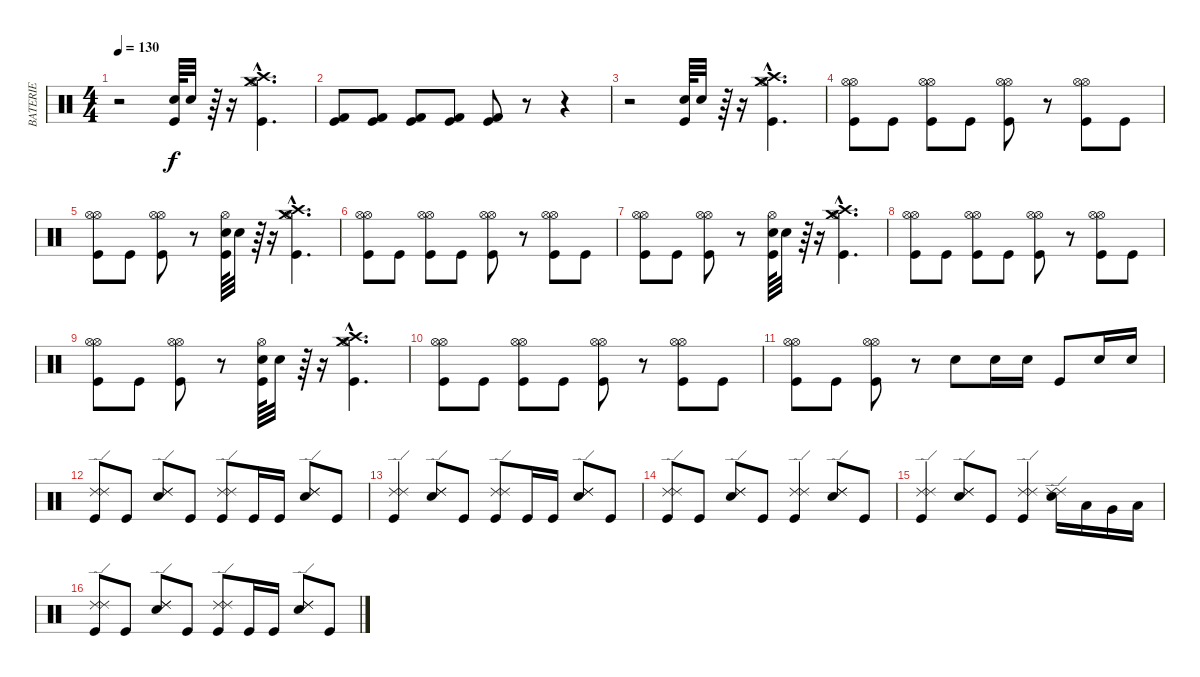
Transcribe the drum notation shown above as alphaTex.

\track ("BATERIE" "BATERIE") {instrument percussion}
\staff {score}
\articulation defaults
\ts (4 4)
\tempo 130
\clef neutral
\ks c
r.2{dy f} ("Snare (hit) 2" "Kick (hit)").64 "Snare (hit) 2".32 r.64 r.16 ("Crash high (hit)"{hac} "Hi-Hat (open)"{hac} "Crash medium (hit)"{hac} "Kick (hit)"{hac}).4{d} |
("Kick (hit) 2" "Kick (hit)").8 ("Kick (hit) 2" "Kick (hit)").8 ("Kick (hit) 2" "Kick (hit)").8 ("Kick (hit) 2" "Kick (hit)").8 ("Kick (hit) 2" "Kick (hit)").8 r.8 r.4 |
r.2 ("Snare (hit) 2" "Kick (hit)").64 "Snare (hit) 2".32 r.64 r.16 ("Crash high (hit)"{hac} "Hi-Hat (open)"{hac} "Crash medium (hit)"{hac} "Kick (hit)"{hac}).4{d} |
("Hi-Hat (open)" "Hi-Hat (open)" "Kick (hit)").8 "Kick (hit)".8 ("Hi-Hat (open)" "Hi-Hat (open)" "Kick (hit)").8 "Kick (hit)".8 ("Hi-Hat (open)" "Hi-Hat (open)" "Kick (hit)").8 r.8 ("Hi-Hat (open)" "Hi-Hat (open)" "Kick (hit)").8 "Kick (hit)".8 |
("Hi-Hat (open)" "Hi-Hat (open)" "Kick (hit)").8 "Kick (hit)".8 ("Hi-Hat (open)" "Hi-Hat (open)" "Kick (hit)").8 r.8 ("Hi-Hat (open)" "Snare (hit) 2" "Kick (hit)").64 "Snare (hit) 2".32 r.64 r.16 ("Crash high (hit)"{hac} "Hi-Hat (open)"{hac} "Crash medium (hit)"{hac} "Kick (hit)"{hac}).4{d} |
("Hi-Hat (open)" "Hi-Hat (open)" "Kick (hit)").8 "Kick (hit)".8 ("Hi-Hat (open)" "Hi-Hat (open)" "Kick (hit)").8 "Kick (hit)".8 ("Hi-Hat (open)" "Hi-Hat (open)" "Kick (hit)").8 r.8 ("Hi-Hat (open)" "Hi-Hat (open)" "Kick (hit)").8 "Kick (hit)".8 |
("Hi-Hat (open)" "Hi-Hat (open)" "Kick (hit)").8 "Kick (hit)".8 ("Hi-Hat (open)" "Hi-Hat (open)" "Kick (hit)").8 r.8 ("Hi-Hat (open)" "Snare (hit) 2" "Kick (hit)").64 "Snare (hit) 2".32 r.64 r.16 ("Crash high (hit)"{hac} "Hi-Hat (open)"{hac} "Crash medium (hit)"{hac} "Kick (hit)"{hac}).4{d} |
("Hi-Hat (open)" "Hi-Hat (open)" "Kick (hit)").8 "Kick (hit)".8 ("Hi-Hat (open)" "Hi-Hat (open)" "Kick (hit)").8 "Kick (hit)".8 ("Hi-Hat (open)" "Hi-Hat (open)" "Kick (hit)").8 r.8 ("Hi-Hat (open)" "Hi-Hat (open)" "Kick (hit)").8 "Kick (hit)".8 |
("Hi-Hat (open)" "Hi-Hat (open)" "Kick (hit)").8 "Kick (hit)".8 ("Hi-Hat (open)" "Hi-Hat (open)" "Kick (hit)").8 r.8 ("Hi-Hat (open)" "Snare (hit) 2" "Kick (hit)").64 "Snare (hit) 2".32 r.64 r.16 ("Crash high (hit)"{hac} "Hi-Hat (open)"{hac} "Crash medium (hit)"{hac} "Kick (hit)"{hac}).4{d} |
("Hi-Hat (open)" "Hi-Hat (open)" "Kick (hit)").8 "Kick (hit)".8 ("Hi-Hat (open)" "Hi-Hat (open)" "Kick (hit)").8 "Kick (hit)".8 ("Hi-Hat (open)" "Hi-Hat (open)" "Kick (hit)").8 r.8 ("Hi-Hat (open)" "Hi-Hat (open)" "Kick (hit)").8 "Kick (hit)".8 |
("Hi-Hat (open)" "Hi-Hat (open)" "Kick (hit)").8 "Kick (hit)".8 ("Hi-Hat (open)" "Hi-Hat (open)" "Kick (hit)").8 r.8 "Snare (hit) 2".8 "Snare (hit) 2".16 "Snare (hit) 2".16 "Kick (hit)".8 "Snare (hit) 2".16 "Snare (hit) 2".16 |
("Ride (edge) 2" "Ride (edge) 2" "Kick (hit)").8 "Kick (hit)".8 ("Ride (edge) 2" "Ride (edge) 2" "Snare (hit) 2").8 "Kick (hit)".8 ("Ride (edge) 2" "Ride (edge) 2" "Kick (hit)").8 "Kick (hit)".16 "Kick (hit)".16 ("Ride (edge) 2" "Ride (edge) 2" "Snare (hit) 2").8 "Kick (hit)".8 |
("Ride (edge) 2" "Ride (edge) 2" "Kick (hit)").4 ("Ride (edge) 2" "Ride (edge) 2" "Snare (hit) 2").8 "Kick (hit)".8 ("Ride (edge) 2" "Ride (edge) 2" "Kick (hit)").8 "Kick (hit)".16 "Kick (hit)".16 ("Ride (edge) 2" "Ride (edge) 2" "Snare (hit) 2").8 "Kick (hit)".8 |
("Ride (edge) 2" "Ride (edge) 2" "Kick (hit)").8 "Kick (hit)".8 ("Ride (edge) 2" "Ride (edge) 2" "Snare (hit) 2").8 "Kick (hit)".8 ("Ride (edge) 2" "Ride (edge) 2" "Kick (hit)").4 ("Ride (edge) 2" "Ride (edge) 2" "Snare (hit) 2").8 "Kick (hit)".8 |
("Ride (edge) 2" "Ride (edge) 2" "Kick (hit)").4 ("Ride (edge) 2" "Ride (edge) 2" "Snare (hit) 2").8 "Kick (hit)".8 ("Ride (edge) 2" "Ride (edge) 2" "Kick (hit)").4 ("Ride (edge) 2" "Ride (edge) 2" "Snare (hit) 2").16 "Low Tom (hit)".16 "Very Low Tom (hit)".16 "Low Floor Tom (hit)".16 |
("Ride (edge) 2" "Ride (edge) 2" "Kick (hit)").8 "Kick (hit)".8 ("Ride (edge) 2" "Ride (edge) 2" "Snare (hit) 2").8 "Kick (hit)".8 ("Ride (edge) 2" "Ride (edge) 2" "Kick (hit)").8 "Kick (hit)".16 "Kick (hit)".16 ("Ride (edge) 2" "Ride (edge) 2" "Snare (hit) 2").8 "Kick (hit)".8
